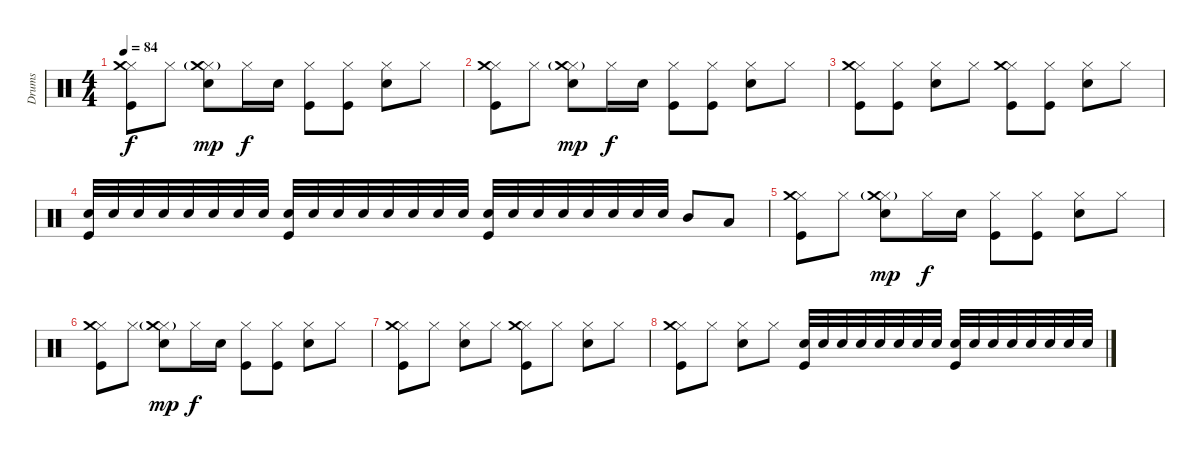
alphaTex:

\track ("Drums" "Drums") {instrument percussion}
\staff {score}
\articulation defaults
\ts (4 4)
\tempo 84
\clef neutral
\ks c
("Hi-Hat (closed)" "Crash medium (hit)" "Kick (hit)").8{dy f} "Hi-Hat (closed)".8 ("Hi-Hat (closed)" "Crash medium (hit)"{g} "Snare (hit) 2").8{dy mp} "Hi-Hat (closed)".16{dy f} "Snare (hit) 2".16 ("Hi-Hat (closed)" "Kick (hit)").8 ("Hi-Hat (closed)" "Kick (hit)").8 ("Hi-Hat (closed)" "Snare (hit) 2").8 "Hi-Hat (closed)".8 |
("Hi-Hat (closed)" "Crash medium (hit)" "Kick (hit)").8 "Hi-Hat (closed)".8 ("Hi-Hat (closed)" "Crash medium (hit)"{g} "Snare (hit) 2").8{dy mp} "Hi-Hat (closed)".16{dy f} "Snare (hit) 2".16 ("Hi-Hat (closed)" "Kick (hit)").8 ("Hi-Hat (closed)" "Kick (hit)").8 ("Hi-Hat (closed)" "Snare (hit) 2").8 "Hi-Hat (closed)".8 |
("Hi-Hat (closed)" "Crash medium (hit)" "Kick (hit)").8 ("Hi-Hat (closed)" "Kick (hit)").8 ("Hi-Hat (closed)" "Snare (hit) 2").8 "Hi-Hat (closed)".8 ("Hi-Hat (closed)" "Crash medium (hit)" "Kick (hit)").8 ("Hi-Hat (closed)" "Kick (hit)").8 ("Hi-Hat (closed)" "Snare (hit) 2").8 "Hi-Hat (closed)".8 |
("Snare (hit) 2" "Kick (hit)").32 "Snare (hit) 2".32 "Snare (hit) 2".32 "Snare (hit) 2".32 "Snare (hit) 2".32 "Snare (hit) 2".32 "Snare (hit) 2".32 "Snare (hit) 2".32 ("Snare (hit) 2" "Kick (hit)").32 "Snare (hit) 2".32 "Snare (hit) 2".32 "Snare (hit) 2".32 "Snare (hit) 2".32 "Snare (hit) 2".32 "Snare (hit) 2".32 "Snare (hit) 2".32 ("Snare (hit) 2" "Kick (hit)").32 "Snare (hit) 2".32 "Snare (hit) 2".32 "Snare (hit) 2".32 "Snare (hit) 2".32 "Snare (hit) 2".32 "Snare (hit) 2".32 "Snare (hit) 2".32 "Mid Tom (hit)".8 "Low Tom (hit)".8 |
("Hi-Hat (closed)" "Crash medium (hit)" "Kick (hit)").8 "Hi-Hat (closed)".8 ("Hi-Hat (closed)" "Crash medium (hit)"{g} "Snare (hit) 2").8{dy mp} "Hi-Hat (closed)".16{dy f} "Snare (hit) 2".16 ("Hi-Hat (closed)" "Kick (hit)").8 ("Hi-Hat (closed)" "Kick (hit)").8 ("Hi-Hat (closed)" "Snare (hit) 2").8 "Hi-Hat (closed)".8 |
("Hi-Hat (closed)" "Crash medium (hit)" "Kick (hit)").8 "Hi-Hat (closed)".8 ("Hi-Hat (closed)" "Crash medium (hit)"{g} "Snare (hit) 2").8{dy mp} "Hi-Hat (closed)".16{dy f} "Snare (hit) 2".16 ("Hi-Hat (closed)" "Kick (hit)").8 ("Hi-Hat (closed)" "Kick (hit)").8 ("Hi-Hat (closed)" "Snare (hit) 2").8 "Hi-Hat (closed)".8 |
("Hi-Hat (closed)" "Crash medium (hit)" "Kick (hit)").8 "Hi-Hat (closed)".8 ("Hi-Hat (closed)" "Snare (hit) 2").8 "Hi-Hat (closed)".8 ("Hi-Hat (closed)" "Crash medium (hit)" "Kick (hit)").8 "Hi-Hat (closed)".8 ("Hi-Hat (closed)" "Snare (hit) 2").8 "Hi-Hat (closed)".8 |
("Hi-Hat (closed)" "Crash medium (hit)" "Kick (hit)").8 "Hi-Hat (closed)".8 ("Hi-Hat (closed)" "Snare (hit) 2").8 "Hi-Hat (closed)".8 ("Snare (hit) 2" "Kick (hit)").32 "Snare (hit) 2".32 "Snare (hit) 2".32 "Snare (hit) 2".32 "Snare (hit) 2".32 "Snare (hit) 2".32 "Snare (hit) 2".32 "Snare (hit) 2".32 ("Snare (hit) 2" "Kick (hit)").32 "Snare (hit) 2".32 "Snare (hit) 2".32 "Snare (hit) 2".32 "Snare (hit) 2".32 "Snare (hit) 2".32 "Snare (hit) 2".32 "Snare (hit) 2".32
